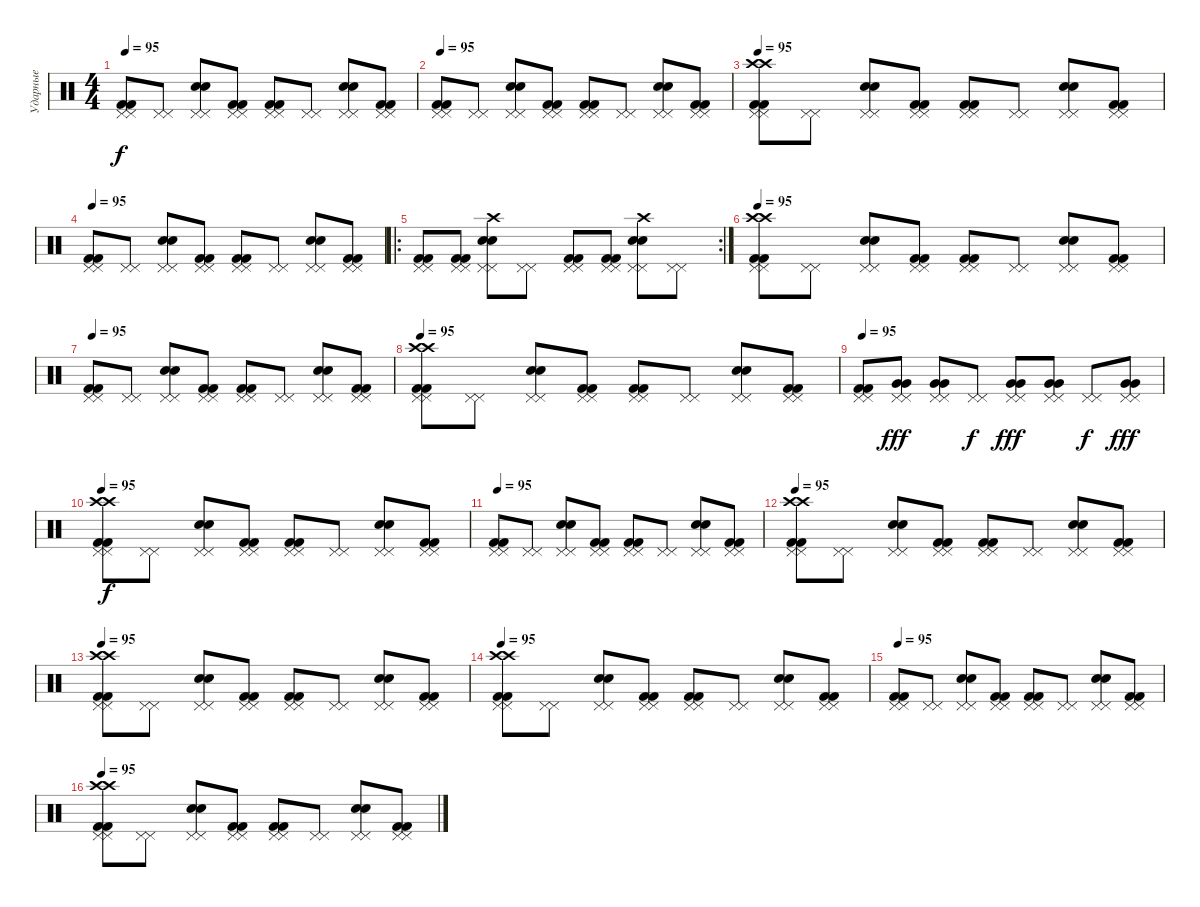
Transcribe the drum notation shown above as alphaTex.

\track ("Ударные" "Ударные") {instrument percussion}
\staff {score}
\articulation defaults
\ts (4 4)
\tempo 95
\clef neutral
\ks c
("Kick (hit) 2" "Kick (hit) 2" "Pedal Hi-Hat (hit)" "Pedal Hi-Hat (hit)").8{dy f} ("Pedal Hi-Hat (hit)" "Pedal Hi-Hat (hit)").8 ("Pedal Hi-Hat (hit)" "Pedal Hi-Hat (hit)" "Electric Snare (hit)" "Electric Snare (hit)").8 ("Pedal Hi-Hat (hit)" "Pedal Hi-Hat (hit)" "Kick (hit) 2" "Kick (hit) 2").8 ("Pedal Hi-Hat (hit)" "Pedal Hi-Hat (hit)" "Kick (hit) 2" "Kick (hit) 2").8 ("Pedal Hi-Hat (hit)" "Pedal Hi-Hat (hit)").8 ("Pedal Hi-Hat (hit)" "Pedal Hi-Hat (hit)" "Electric Snare (hit)" "Electric Snare (hit)").8 ("Pedal Hi-Hat (hit)" "Pedal Hi-Hat (hit)" "Kick (hit) 2" "Kick (hit) 2").8 |
\tempo 95
("Kick (hit) 2" "Kick (hit) 2" "Pedal Hi-Hat (hit)" "Pedal Hi-Hat (hit)").8 ("Pedal Hi-Hat (hit)" "Pedal Hi-Hat (hit)").8 ("Pedal Hi-Hat (hit)" "Pedal Hi-Hat (hit)" "Electric Snare (hit)" "Electric Snare (hit)").8 ("Pedal Hi-Hat (hit)" "Pedal Hi-Hat (hit)" "Kick (hit) 2" "Kick (hit) 2").8 ("Pedal Hi-Hat (hit)" "Pedal Hi-Hat (hit)" "Kick (hit) 2" "Kick (hit) 2").8 ("Pedal Hi-Hat (hit)" "Pedal Hi-Hat (hit)").8 ("Pedal Hi-Hat (hit)" "Pedal Hi-Hat (hit)" "Electric Snare (hit)" "Electric Snare (hit)").8 ("Pedal Hi-Hat (hit)" "Pedal Hi-Hat (hit)" "Kick (hit) 2" "Kick (hit) 2").8 |
\tempo 95
("Kick (hit) 2" "Kick (hit) 2" "Pedal Hi-Hat (hit)" "Pedal Hi-Hat (hit)" "Crash high (hit)" "Crash high (hit)").8 ("Pedal Hi-Hat (hit)" "Pedal Hi-Hat (hit)").8 ("Pedal Hi-Hat (hit)" "Pedal Hi-Hat (hit)" "Electric Snare (hit)" "Electric Snare (hit)").8 ("Pedal Hi-Hat (hit)" "Pedal Hi-Hat (hit)" "Kick (hit) 2" "Kick (hit) 2").8 ("Pedal Hi-Hat (hit)" "Pedal Hi-Hat (hit)" "Kick (hit) 2" "Kick (hit) 2").8 ("Pedal Hi-Hat (hit)" "Pedal Hi-Hat (hit)").8 ("Pedal Hi-Hat (hit)" "Pedal Hi-Hat (hit)" "Electric Snare (hit)" "Electric Snare (hit)").8 ("Pedal Hi-Hat (hit)" "Pedal Hi-Hat (hit)" "Kick (hit) 2" "Kick (hit) 2").8 |
\tempo 95
("Kick (hit) 2" "Kick (hit) 2" "Pedal Hi-Hat (hit)" "Pedal Hi-Hat (hit)").8 ("Pedal Hi-Hat (hit)" "Pedal Hi-Hat (hit)").8 ("Pedal Hi-Hat (hit)" "Pedal Hi-Hat (hit)" "Electric Snare (hit)" "Electric Snare (hit)").8 ("Pedal Hi-Hat (hit)" "Pedal Hi-Hat (hit)" "Kick (hit) 2" "Kick (hit) 2").8 ("Pedal Hi-Hat (hit)" "Pedal Hi-Hat (hit)" "Kick (hit) 2" "Kick (hit) 2").8 ("Pedal Hi-Hat (hit)" "Pedal Hi-Hat (hit)").8 ("Pedal Hi-Hat (hit)" "Pedal Hi-Hat (hit)" "Electric Snare (hit)" "Electric Snare (hit)").8 ("Pedal Hi-Hat (hit)" "Pedal Hi-Hat (hit)" "Kick (hit) 2" "Kick (hit) 2").8 |
\ro
\rc 2
("Kick (hit) 2" "Kick (hit) 2" "Pedal Hi-Hat (hit)" "Pedal Hi-Hat (hit)").8 ("Kick (hit) 2" "Kick (hit) 2" "Pedal Hi-Hat (hit)" "Pedal Hi-Hat (hit)").8 ("Electric Snare (hit)" "Electric Snare (hit)" "Crash high (hit)" "Pedal Hi-Hat (hit)" "Pedal Hi-Hat (hit)").8 ("Pedal Hi-Hat (hit)" "Pedal Hi-Hat (hit)").8 ("Kick (hit) 2" "Kick (hit) 2" "Pedal Hi-Hat (hit)" "Pedal Hi-Hat (hit)").8 ("Kick (hit) 2" "Kick (hit) 2" "Pedal Hi-Hat (hit)" "Pedal Hi-Hat (hit)").8 ("Electric Snare (hit)" "Electric Snare (hit)" "Crash high (hit)" "Pedal Hi-Hat (hit)" "Pedal Hi-Hat (hit)").8 ("Pedal Hi-Hat (hit)" "Pedal Hi-Hat (hit)").8 |
\tempo 95
("Kick (hit) 2" "Kick (hit) 2" "Pedal Hi-Hat (hit)" "Pedal Hi-Hat (hit)" "Crash high (hit)" "Crash high (hit)").8 ("Pedal Hi-Hat (hit)" "Pedal Hi-Hat (hit)").8 ("Pedal Hi-Hat (hit)" "Pedal Hi-Hat (hit)" "Electric Snare (hit)" "Electric Snare (hit)").8 ("Pedal Hi-Hat (hit)" "Pedal Hi-Hat (hit)" "Kick (hit) 2" "Kick (hit) 2").8 ("Pedal Hi-Hat (hit)" "Pedal Hi-Hat (hit)" "Kick (hit) 2" "Kick (hit) 2").8 ("Pedal Hi-Hat (hit)" "Pedal Hi-Hat (hit)").8 ("Pedal Hi-Hat (hit)" "Pedal Hi-Hat (hit)" "Electric Snare (hit)" "Electric Snare (hit)").8 ("Pedal Hi-Hat (hit)" "Pedal Hi-Hat (hit)" "Kick (hit) 2" "Kick (hit) 2").8 |
\tempo 95
("Kick (hit) 2" "Kick (hit) 2" "Pedal Hi-Hat (hit)" "Pedal Hi-Hat (hit)").8 ("Pedal Hi-Hat (hit)" "Pedal Hi-Hat (hit)").8 ("Pedal Hi-Hat (hit)" "Pedal Hi-Hat (hit)" "Electric Snare (hit)" "Electric Snare (hit)").8 ("Pedal Hi-Hat (hit)" "Pedal Hi-Hat (hit)" "Kick (hit) 2" "Kick (hit) 2").8 ("Pedal Hi-Hat (hit)" "Pedal Hi-Hat (hit)" "Kick (hit) 2" "Kick (hit) 2").8 ("Pedal Hi-Hat (hit)" "Pedal Hi-Hat (hit)").8 ("Pedal Hi-Hat (hit)" "Pedal Hi-Hat (hit)" "Electric Snare (hit)" "Electric Snare (hit)").8 ("Pedal Hi-Hat (hit)" "Pedal Hi-Hat (hit)" "Kick (hit) 2" "Kick (hit) 2").8 |
\tempo 95
("Kick (hit) 2" "Kick (hit) 2" "Pedal Hi-Hat (hit)" "Pedal Hi-Hat (hit)" "Crash high (hit)" "Crash high (hit)").8 ("Pedal Hi-Hat (hit)" "Pedal Hi-Hat (hit)").8 ("Pedal Hi-Hat (hit)" "Pedal Hi-Hat (hit)" "Electric Snare (hit)" "Electric Snare (hit)").8 ("Pedal Hi-Hat (hit)" "Pedal Hi-Hat (hit)" "Kick (hit) 2" "Kick (hit) 2").8 ("Pedal Hi-Hat (hit)" "Pedal Hi-Hat (hit)" "Kick (hit) 2" "Kick (hit) 2").8 ("Pedal Hi-Hat (hit)" "Pedal Hi-Hat (hit)").8 ("Pedal Hi-Hat (hit)" "Pedal Hi-Hat (hit)" "Electric Snare (hit)" "Electric Snare (hit)").8 ("Pedal Hi-Hat (hit)" "Pedal Hi-Hat (hit)" "Kick (hit) 2" "Kick (hit) 2").8 |
\tempo 95
("Kick (hit) 2" "Kick (hit) 2" "Pedal Hi-Hat (hit)" "Pedal Hi-Hat (hit)").8 ("Pedal Hi-Hat (hit)" "Pedal Hi-Hat (hit)" "Very Low Tom (hit)" "Very Low Tom (hit)").8{dy fff} ("Pedal Hi-Hat (hit)" "Pedal Hi-Hat (hit)" "Very Low Tom (hit)" "Very Low Tom (hit)").8 ("Pedal Hi-Hat (hit)" "Pedal Hi-Hat (hit)").8{dy f} ("Pedal Hi-Hat (hit)" "Pedal Hi-Hat (hit)" "Very Low Tom (hit)" "Very Low Tom (hit)").8{dy fff} ("Pedal Hi-Hat (hit)" "Pedal Hi-Hat (hit)" "Very Low Tom (hit)" "Very Low Tom (hit)").8 ("Pedal Hi-Hat (hit)" "Pedal Hi-Hat (hit)").8{dy f} ("Pedal Hi-Hat (hit)" "Pedal Hi-Hat (hit)" "Very Low Tom (hit)" "Very Low Tom (hit)").8{dy fff} |
\tempo 95
("Kick (hit) 2" "Kick (hit) 2" "Pedal Hi-Hat (hit)" "Pedal Hi-Hat (hit)" "Crash high (hit)" "Crash high (hit)").8{dy f} ("Pedal Hi-Hat (hit)" "Pedal Hi-Hat (hit)").8 ("Pedal Hi-Hat (hit)" "Pedal Hi-Hat (hit)" "Electric Snare (hit)" "Electric Snare (hit)").8 ("Pedal Hi-Hat (hit)" "Pedal Hi-Hat (hit)" "Kick (hit) 2" "Kick (hit) 2").8 ("Pedal Hi-Hat (hit)" "Pedal Hi-Hat (hit)" "Kick (hit) 2" "Kick (hit) 2").8 ("Pedal Hi-Hat (hit)" "Pedal Hi-Hat (hit)").8 ("Pedal Hi-Hat (hit)" "Pedal Hi-Hat (hit)" "Electric Snare (hit)" "Electric Snare (hit)").8 ("Pedal Hi-Hat (hit)" "Pedal Hi-Hat (hit)" "Kick (hit) 2" "Kick (hit) 2").8 |
\tempo 95
("Kick (hit) 2" "Kick (hit) 2" "Pedal Hi-Hat (hit)" "Pedal Hi-Hat (hit)").8 ("Pedal Hi-Hat (hit)" "Pedal Hi-Hat (hit)").8 ("Pedal Hi-Hat (hit)" "Pedal Hi-Hat (hit)" "Electric Snare (hit)" "Electric Snare (hit)").8 ("Pedal Hi-Hat (hit)" "Pedal Hi-Hat (hit)" "Kick (hit) 2" "Kick (hit) 2").8 ("Pedal Hi-Hat (hit)" "Pedal Hi-Hat (hit)" "Kick (hit) 2" "Kick (hit) 2").8 ("Pedal Hi-Hat (hit)" "Pedal Hi-Hat (hit)").8 ("Pedal Hi-Hat (hit)" "Pedal Hi-Hat (hit)" "Electric Snare (hit)" "Electric Snare (hit)").8 ("Pedal Hi-Hat (hit)" "Pedal Hi-Hat (hit)" "Kick (hit) 2" "Kick (hit) 2").8 |
\tempo 95
("Kick (hit) 2" "Kick (hit) 2" "Pedal Hi-Hat (hit)" "Pedal Hi-Hat (hit)" "Crash high (hit)" "Crash high (hit)").8 ("Pedal Hi-Hat (hit)" "Pedal Hi-Hat (hit)").8 ("Pedal Hi-Hat (hit)" "Pedal Hi-Hat (hit)" "Electric Snare (hit)" "Electric Snare (hit)").8 ("Pedal Hi-Hat (hit)" "Pedal Hi-Hat (hit)" "Kick (hit) 2" "Kick (hit) 2").8 ("Pedal Hi-Hat (hit)" "Pedal Hi-Hat (hit)" "Kick (hit) 2" "Kick (hit) 2").8 ("Pedal Hi-Hat (hit)" "Pedal Hi-Hat (hit)").8 ("Pedal Hi-Hat (hit)" "Pedal Hi-Hat (hit)" "Electric Snare (hit)" "Electric Snare (hit)").8 ("Pedal Hi-Hat (hit)" "Pedal Hi-Hat (hit)" "Kick (hit) 2" "Kick (hit) 2").8 |
\tempo 95
("Kick (hit) 2" "Kick (hit) 2" "Pedal Hi-Hat (hit)" "Pedal Hi-Hat (hit)" "Crash high (hit)" "Crash high (hit)").8 ("Pedal Hi-Hat (hit)" "Pedal Hi-Hat (hit)").8 ("Pedal Hi-Hat (hit)" "Pedal Hi-Hat (hit)" "Electric Snare (hit)" "Electric Snare (hit)").8 ("Pedal Hi-Hat (hit)" "Pedal Hi-Hat (hit)" "Kick (hit) 2" "Kick (hit) 2").8 ("Pedal Hi-Hat (hit)" "Pedal Hi-Hat (hit)" "Kick (hit) 2" "Kick (hit) 2").8 ("Pedal Hi-Hat (hit)" "Pedal Hi-Hat (hit)").8 ("Pedal Hi-Hat (hit)" "Pedal Hi-Hat (hit)" "Electric Snare (hit)" "Electric Snare (hit)").8 ("Pedal Hi-Hat (hit)" "Pedal Hi-Hat (hit)" "Kick (hit) 2" "Kick (hit) 2").8 |
\tempo 95
("Kick (hit) 2" "Kick (hit) 2" "Pedal Hi-Hat (hit)" "Pedal Hi-Hat (hit)" "Crash high (hit)" "Crash high (hit)").8 ("Pedal Hi-Hat (hit)" "Pedal Hi-Hat (hit)").8 ("Pedal Hi-Hat (hit)" "Pedal Hi-Hat (hit)" "Electric Snare (hit)" "Electric Snare (hit)").8 ("Pedal Hi-Hat (hit)" "Pedal Hi-Hat (hit)" "Kick (hit) 2" "Kick (hit) 2").8 ("Pedal Hi-Hat (hit)" "Pedal Hi-Hat (hit)" "Kick (hit) 2" "Kick (hit) 2").8 ("Pedal Hi-Hat (hit)" "Pedal Hi-Hat (hit)").8 ("Pedal Hi-Hat (hit)" "Pedal Hi-Hat (hit)" "Electric Snare (hit)" "Electric Snare (hit)").8 ("Pedal Hi-Hat (hit)" "Pedal Hi-Hat (hit)" "Kick (hit) 2" "Kick (hit) 2").8 |
\tempo 95
("Kick (hit) 2" "Kick (hit) 2" "Pedal Hi-Hat (hit)" "Pedal Hi-Hat (hit)").8 ("Pedal Hi-Hat (hit)" "Pedal Hi-Hat (hit)").8 ("Pedal Hi-Hat (hit)" "Pedal Hi-Hat (hit)" "Electric Snare (hit)" "Electric Snare (hit)").8 ("Pedal Hi-Hat (hit)" "Pedal Hi-Hat (hit)" "Kick (hit) 2" "Kick (hit) 2").8 ("Pedal Hi-Hat (hit)" "Pedal Hi-Hat (hit)" "Kick (hit) 2" "Kick (hit) 2").8 ("Pedal Hi-Hat (hit)" "Pedal Hi-Hat (hit)").8 ("Pedal Hi-Hat (hit)" "Pedal Hi-Hat (hit)" "Electric Snare (hit)" "Electric Snare (hit)").8 ("Pedal Hi-Hat (hit)" "Pedal Hi-Hat (hit)" "Kick (hit) 2" "Kick (hit) 2").8 |
\tempo 95
("Kick (hit) 2" "Kick (hit) 2" "Pedal Hi-Hat (hit)" "Pedal Hi-Hat (hit)" "Crash high (hit)" "Crash high (hit)").8 ("Pedal Hi-Hat (hit)" "Pedal Hi-Hat (hit)").8 ("Pedal Hi-Hat (hit)" "Pedal Hi-Hat (hit)" "Electric Snare (hit)" "Electric Snare (hit)").8 ("Pedal Hi-Hat (hit)" "Pedal Hi-Hat (hit)" "Kick (hit) 2" "Kick (hit) 2").8 ("Pedal Hi-Hat (hit)" "Pedal Hi-Hat (hit)" "Kick (hit) 2" "Kick (hit) 2").8 ("Pedal Hi-Hat (hit)" "Pedal Hi-Hat (hit)").8 ("Pedal Hi-Hat (hit)" "Pedal Hi-Hat (hit)" "Electric Snare (hit)" "Electric Snare (hit)").8 ("Pedal Hi-Hat (hit)" "Pedal Hi-Hat (hit)" "Kick (hit) 2" "Kick (hit) 2").8
